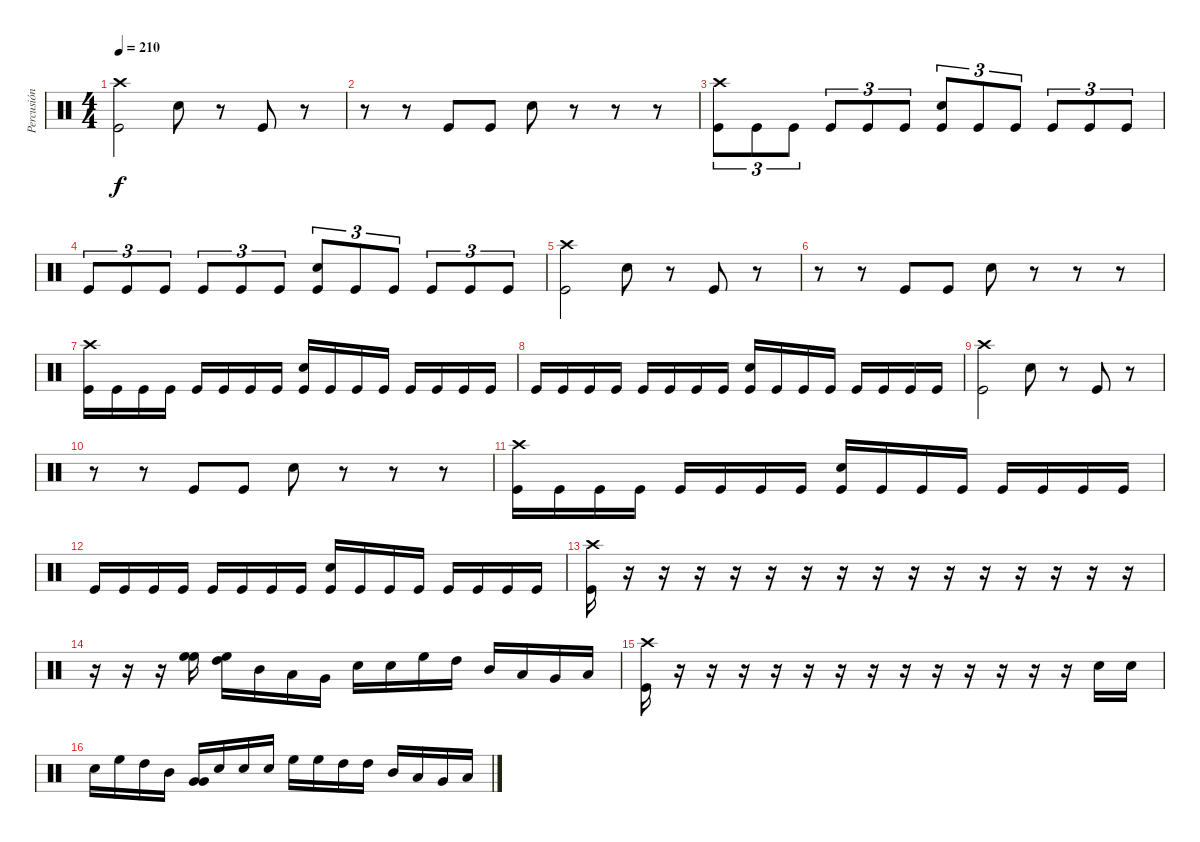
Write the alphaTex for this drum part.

\track ("Percusión" "Percusión") {instrument percussion}
\staff {score}
\articulation defaults
\ts (4 4)
\tempo 210
\clef neutral
\ks c
("Crash high (hit)" "Kick (hit)").2{dy f} "Snare (hit) 2".8 r.8 "Kick (hit)".8 r.8 |
r.8 r.8 "Kick (hit)".8 "Kick (hit)".8 "Snare (hit) 2".8 r.8 r.8 r.8 |
("Crash high (hit)" "Kick (hit)").8{tu (3 2)} "Kick (hit)".8{tu (3 2)} "Kick (hit)".8{tu (3 2)} "Kick (hit)".8{tu (3 2)} "Kick (hit)".8{tu (3 2)} "Kick (hit)".8{tu (3 2)} ("Snare (hit) 2" "Kick (hit)").8{tu (3 2)} "Kick (hit)".8{tu (3 2)} "Kick (hit)".8{tu (3 2)} "Kick (hit)".8{tu (3 2)} "Kick (hit)".8{tu (3 2)} "Kick (hit)".8{tu (3 2)} |
"Kick (hit)".8{tu (3 2)} "Kick (hit)".8{tu (3 2)} "Kick (hit)".8{tu (3 2)} "Kick (hit)".8{tu (3 2)} "Kick (hit)".8{tu (3 2)} "Kick (hit)".8{tu (3 2)} ("Snare (hit) 2" "Kick (hit)").8{tu (3 2)} "Kick (hit)".8{tu (3 2)} "Kick (hit)".8{tu (3 2)} "Kick (hit)".8{tu (3 2)} "Kick (hit)".8{tu (3 2)} "Kick (hit)".8{tu (3 2)} |
("Crash high (hit)" "Kick (hit)").2 "Snare (hit) 2".8 r.8 "Kick (hit)".8 r.8 |
r.8 r.8 "Kick (hit)".8 "Kick (hit)".8 "Snare (hit) 2".8 r.8 r.8 r.8 |
("Crash high (hit)" "Kick (hit)").16 "Kick (hit)".16 "Kick (hit)".16 "Kick (hit)".16 "Kick (hit)".16 "Kick (hit)".16 "Kick (hit)".16 "Kick (hit)".16 ("Snare (hit) 2" "Kick (hit)").16 "Kick (hit)".16 "Kick (hit)".16 "Kick (hit)".16 "Kick (hit)".16 "Kick (hit)".16 "Kick (hit)".16 "Kick (hit)".16 |
"Kick (hit)".16 "Kick (hit)".16 "Kick (hit)".16 "Kick (hit)".16 "Kick (hit)".16 "Kick (hit)".16 "Kick (hit)".16 "Kick (hit)".16 ("Snare (hit) 2" "Kick (hit)").16 "Kick (hit)".16 "Kick (hit)".16 "Kick (hit)".16 "Kick (hit)".16 "Kick (hit)".16 "Kick (hit)".16 "Kick (hit)".16 |
("Crash high (hit)" "Kick (hit)").2 "Snare (hit) 2".8 r.8 "Kick (hit)".8 r.8 |
r.8 r.8 "Kick (hit)".8 "Kick (hit)".8 "Snare (hit) 2".8 r.8 r.8 r.8 |
("Crash high (hit)" "Kick (hit)").16 "Kick (hit)".16 "Kick (hit)".16 "Kick (hit)".16 "Kick (hit)".16 "Kick (hit)".16 "Kick (hit)".16 "Kick (hit)".16 ("Snare (hit) 2" "Kick (hit)").16 "Kick (hit)".16 "Kick (hit)".16 "Kick (hit)".16 "Kick (hit)".16 "Kick (hit)".16 "Kick (hit)".16 "Kick (hit)".16 |
"Kick (hit)".16 "Kick (hit)".16 "Kick (hit)".16 "Kick (hit)".16 "Kick (hit)".16 "Kick (hit)".16 "Kick (hit)".16 "Kick (hit)".16 ("Snare (hit) 2" "Kick (hit)").16 "Kick (hit)".16 "Kick (hit)".16 "Kick (hit)".16 "Kick (hit)".16 "Kick (hit)".16 "Kick (hit)".16 "Kick (hit)".16 |
("Crash high (hit)" "Kick (hit)").16 r.16 r.16 r.16 r.16 r.16 r.16 r.16 r.16 r.16 r.16 r.16 r.16 r.16 r.16 r.16 |
r.16 r.16 r.16 ("High Floor Tom (hit)" "High Floor Tom (hit)").16 ("High Floor Tom (hit)" "High Tom (hit)").16 "Mid Tom (hit)".16 "Low Tom (hit)".16 "Very Low Tom (hit)".16 "Snare (hit) 2".16 "Snare (hit) 2".16 "High Floor Tom (hit)".16 "High Tom (hit)".16 "Mid Tom (hit)".16 "Low Tom (hit)".16 "Very Low Tom (hit)".16 "Low Floor Tom (hit)".16 |
("Crash high (hit)" "Kick (hit)").16 r.16 r.16 r.16 r.16 r.16 r.16 r.16 r.16 r.16 r.16 r.16 r.16 r.16 "Snare (hit) 2".16 "Snare (hit) 2".16 |
"Snare (hit) 2".16 "High Floor Tom (hit)".16 "High Tom (hit)".16 "Mid Tom (hit)".16 ("Very Low Tom (hit)" "Very Low Tom (hit)").16 "Snare (hit) 2".16 "Snare (hit) 2".16 "Snare (hit) 2".16 "High Floor Tom (hit)".16 "High Floor Tom (hit)".16 "High Tom (hit)".16 "High Tom (hit)".16 "Mid Tom (hit)".16 "Low Tom (hit)".16 "Very Low Tom (hit)".16 "Low Floor Tom (hit)".16
